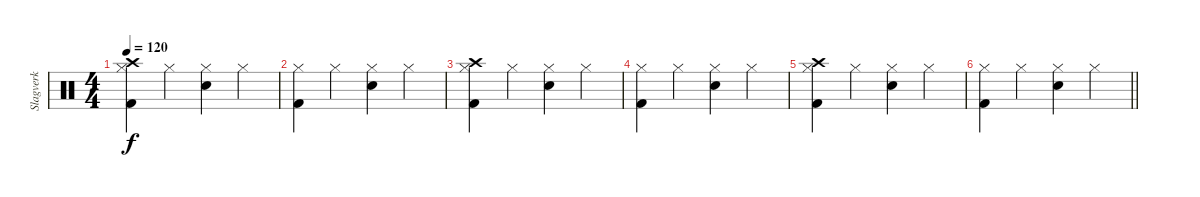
\track ("Slagverk" "Slagverk") {instrument percussion}
\staff {score}
\articulation defaults
\ts (4 4)
\tempo 120
\clef neutral
\ks c
("Hi-Hat (closed)" "Kick (hit) 2" "Crash high (hit)").4{dy f} "Hi-Hat (closed)".4 ("Hi-Hat (closed)" "Snare (hit) 2").4 "Hi-Hat (closed)".4 |
("Hi-Hat (closed)" "Kick (hit) 2").4 "Hi-Hat (closed)".4 ("Hi-Hat (closed)" "Snare (hit) 2").4 "Hi-Hat (closed)".4 |
("Hi-Hat (closed)" "Kick (hit) 2" "Crash high (hit)").4 "Hi-Hat (closed)".4 ("Hi-Hat (closed)" "Snare (hit) 2").4 "Hi-Hat (closed)".4 |
("Hi-Hat (closed)" "Kick (hit) 2").4 "Hi-Hat (closed)".4 ("Hi-Hat (closed)" "Snare (hit) 2").4 "Hi-Hat (closed)".4 |
("Hi-Hat (closed)" "Kick (hit) 2" "Crash high (hit)").4 "Hi-Hat (closed)".4 ("Hi-Hat (closed)" "Snare (hit) 2").4 "Hi-Hat (closed)".4 |
\barLineRight lightlight
("Hi-Hat (closed)" "Kick (hit) 2").4 "Hi-Hat (closed)".4 ("Hi-Hat (closed)" "Snare (hit) 2").4 "Hi-Hat (closed)".4
